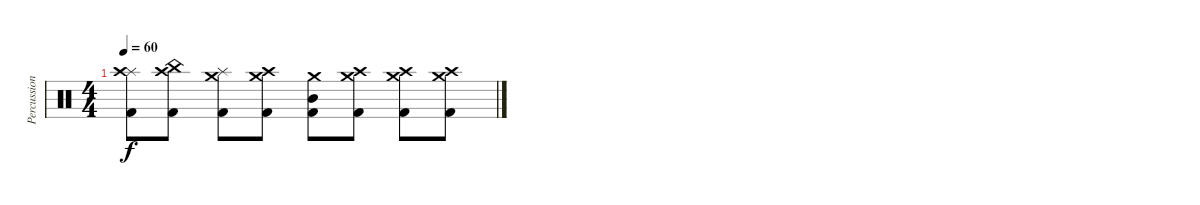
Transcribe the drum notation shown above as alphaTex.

\track ("Percussions" "Percussion") {instrument percussion}
\staff {score}
\articulation defaults
\ts (4 4)
\tempo 60
\clef neutral
\ks c
("Splash (hit)" "Crash high (hit)" "Kick (hit) 2").8{dy f} ("Crash high (hit)" "China (hit)" "Kick (hit) 2").8 ("Splash (hit)" "Crash medium (hit)" "Kick (hit) 2").8 ("Crash medium (hit)" "Crash high (hit)" "Kick (hit) 2").8 ("Crash medium (hit)" "Mid Tom (hit)" "Kick (hit) 2").8 ("Crash high (hit)" "Crash medium (hit)" "Kick (hit) 2").8 ("Crash high (hit)" "Crash medium (hit)" "Kick (hit) 2").8 ("Crash high (hit)" "Crash medium (hit)" "Kick (hit) 2").8
